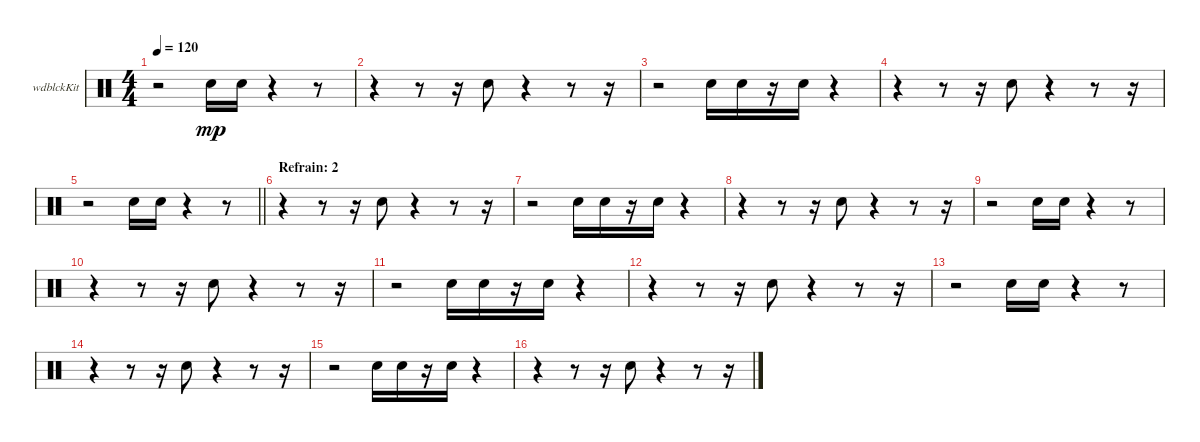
\bracketExtendMode groupsimilarinstruments
\firstSystemTrackNameOrientation horizontal
\otherSystemsTrackNameOrientation horizontal
\track ("Woodblock" "wdblckKit") {instrument percussion}
\staff {score}
\articulation defaults
\ts (4 4)
\tempo 120
\clef neutral
\ks c
r.2{dy mp} "Snare (hit) 2".16 "Snare (hit) 2".16 r.4 r.8 |
r.4 r.8 r.16 "Snare (hit) 2".8 r.4 r.8 r.16 |
r.2 "Snare (hit) 2".16 "Snare (hit) 2".16 r.16 "Snare (hit) 2".16 r.4 |
r.4 r.8 r.16 "Snare (hit) 2".8 r.4 r.8 r.16 |
\barLineRight lightlight
r.2 "Snare (hit) 2".16 "Snare (hit) 2".16 r.4 r.8 |
\section ("" "Refrain: 2")
r.4 r.8 r.16 "Snare (hit) 2".8 r.4 r.8 r.16 |
r.2 "Snare (hit) 2".16 "Snare (hit) 2".16 r.16 "Snare (hit) 2".16 r.4 |
r.4 r.8 r.16 "Snare (hit) 2".8 r.4 r.8 r.16 |
r.2 "Snare (hit) 2".16 "Snare (hit) 2".16 r.4 r.8 |
r.4 r.8 r.16 "Snare (hit) 2".8 r.4 r.8 r.16 |
r.2 "Snare (hit) 2".16 "Snare (hit) 2".16 r.16 "Snare (hit) 2".16 r.4 |
r.4 r.8 r.16 "Snare (hit) 2".8 r.4 r.8 r.16 |
r.2 "Snare (hit) 2".16 "Snare (hit) 2".16 r.4 r.8 |
r.4 r.8 r.16 "Snare (hit) 2".8 r.4 r.8 r.16 |
r.2 "Snare (hit) 2".16 "Snare (hit) 2".16 r.16 "Snare (hit) 2".16 r.4 |
r.4 r.8 r.16 "Snare (hit) 2".8 r.4 r.8 r.16
